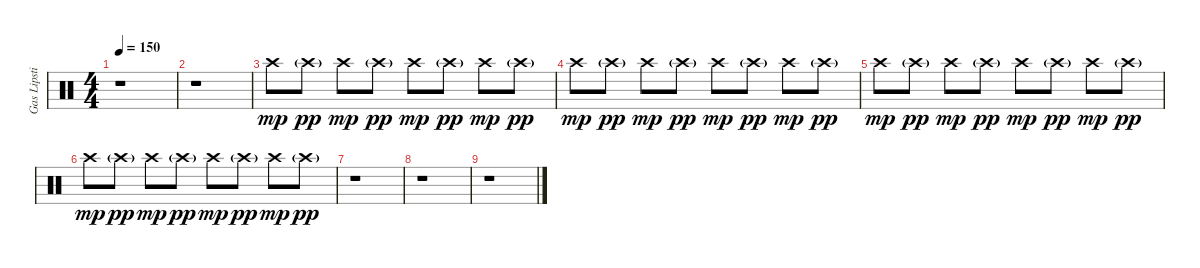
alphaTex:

\track ("Gas Lipstick" "Gas Lipsti") {instrument percussion}
\staff {score}
\articulation defaults
\ts (4 4)
\tempo 150
\clef neutral
\ks c
r.1{dy p} |
r.1 |
"Crash high (hit)".8{dy mp} "Crash high (hit)"{g}.8{dy pp} "Crash high (hit)".8{dy mp} "Crash high (hit)"{g}.8{dy pp} "Crash high (hit)".8{dy mp} "Crash high (hit)"{g}.8{dy pp} "Crash high (hit)".8{dy mp} "Crash high (hit)"{g}.8{dy pp} |
"Crash high (hit)".8{dy mp} "Crash high (hit)"{g}.8{dy pp} "Crash high (hit)".8{dy mp} "Crash high (hit)"{g}.8{dy pp} "Crash high (hit)".8{dy mp} "Crash high (hit)"{g}.8{dy pp} "Crash high (hit)".8{dy mp} "Crash high (hit)"{g}.8{dy pp} |
"Crash high (hit)".8{dy mp} "Crash high (hit)"{g}.8{dy pp} "Crash high (hit)".8{dy mp} "Crash high (hit)"{g}.8{dy pp} "Crash high (hit)".8{dy mp} "Crash high (hit)"{g}.8{dy pp} "Crash high (hit)".8{dy mp} "Crash high (hit)"{g}.8{dy pp} |
"Crash high (hit)".8{dy mp} "Crash high (hit)"{g}.8{dy pp} "Crash high (hit)".8{dy mp} "Crash high (hit)"{g}.8{dy pp} "Crash high (hit)".8{dy mp} "Crash high (hit)"{g}.8{dy pp} "Crash high (hit)".8{dy mp} "Crash high (hit)"{g}.8{dy pp} |
r.1 |
r.1 |
r.1
